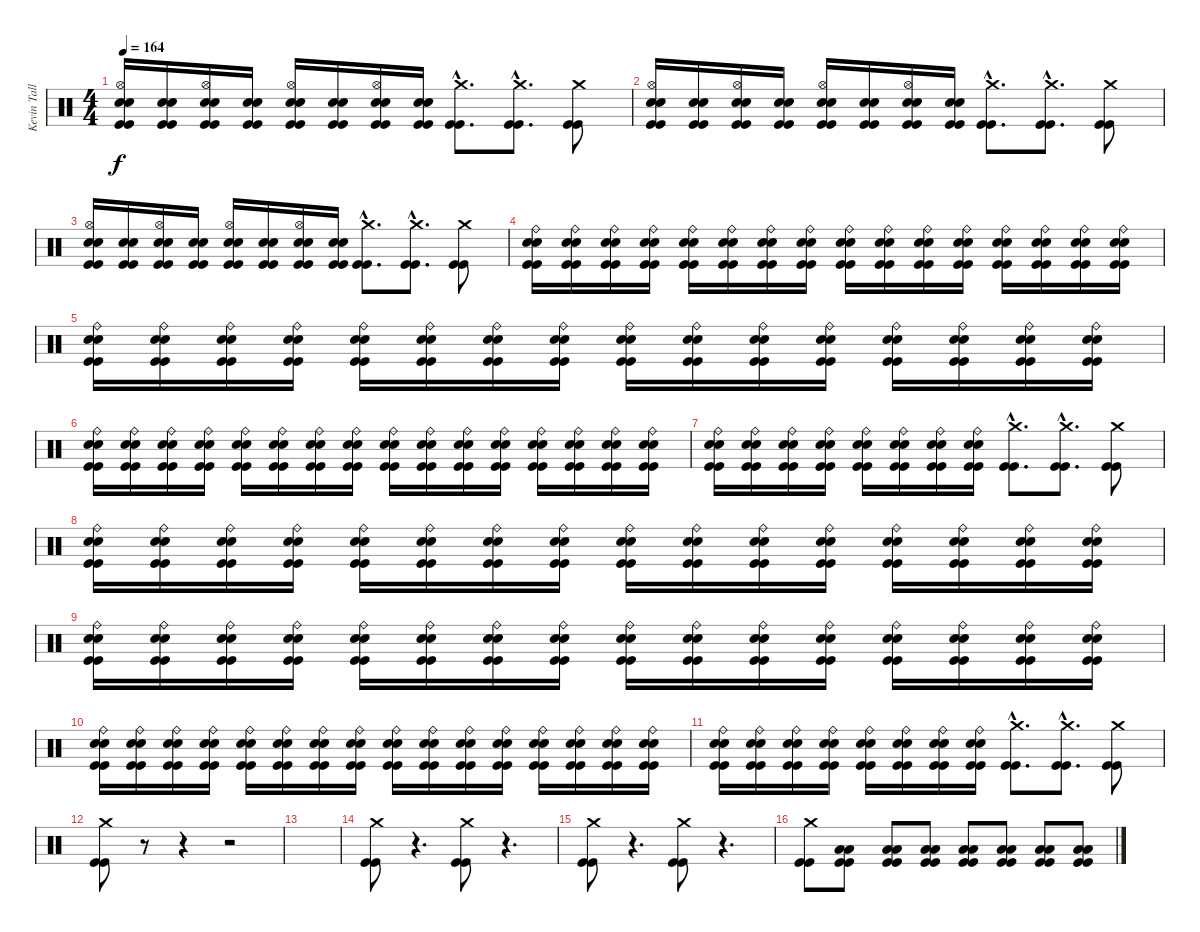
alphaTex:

\track ("Kevin Talley" "Kevin Tall") {instrument percussion}
\staff {score}
\articulation defaults
\ts (4 4)
\tempo 164
\clef neutral
\ks c
("Snare (hit) 2" "Snare (hit) 2" "Hi-Hat (open)" "Kick (hit)" "Kick (hit)").16{dy f} ("Snare (hit) 2" "Snare (hit) 2" "Kick (hit)" "Kick (hit)").16 ("Snare (hit) 2" "Snare (hit) 2" "Hi-Hat (open)" "Kick (hit)" "Kick (hit)").16 ("Snare (hit) 2" "Snare (hit) 2" "Kick (hit)" "Kick (hit)").16 ("Snare (hit) 2" "Snare (hit) 2" "Hi-Hat (open)" "Kick (hit)" "Kick (hit)").16 ("Snare (hit) 2" "Snare (hit) 2" "Kick (hit)" "Kick (hit)").16 ("Snare (hit) 2" "Snare (hit) 2" "Hi-Hat (open)" "Kick (hit)" "Kick (hit)").16 ("Snare (hit) 2" "Snare (hit) 2" "Kick (hit)" "Kick (hit)").16 ("Crash medium (hit)"{hac} "Kick (hit)"{hac} "Kick (hit)"{hac}).8{d} ("Crash medium (hit)"{hac} "Kick (hit)"{hac} "Kick (hit)"{hac}).8{d} ("Crash medium (hit)" "Kick (hit)" "Kick (hit)").8 |
("Snare (hit) 2" "Snare (hit) 2" "Hi-Hat (open)" "Kick (hit)" "Kick (hit)").16 ("Snare (hit) 2" "Snare (hit) 2" "Kick (hit)" "Kick (hit)").16 ("Snare (hit) 2" "Snare (hit) 2" "Hi-Hat (open)" "Kick (hit)" "Kick (hit)").16 ("Snare (hit) 2" "Snare (hit) 2" "Kick (hit)" "Kick (hit)").16 ("Snare (hit) 2" "Snare (hit) 2" "Hi-Hat (open)" "Kick (hit)" "Kick (hit)").16 ("Snare (hit) 2" "Snare (hit) 2" "Kick (hit)" "Kick (hit)").16 ("Snare (hit) 2" "Snare (hit) 2" "Hi-Hat (open)" "Kick (hit)" "Kick (hit)").16 ("Snare (hit) 2" "Snare (hit) 2" "Kick (hit)" "Kick (hit)").16 ("Crash medium (hit)"{hac} "Kick (hit)"{hac} "Kick (hit)"{hac}).8{d} ("Crash medium (hit)"{hac} "Kick (hit)"{hac} "Kick (hit)"{hac}).8{d} ("Crash medium (hit)" "Kick (hit)" "Kick (hit)").8 |
("Snare (hit) 2" "Snare (hit) 2" "Hi-Hat (open)" "Kick (hit)" "Kick (hit)").16 ("Snare (hit) 2" "Snare (hit) 2" "Kick (hit)" "Kick (hit)").16 ("Snare (hit) 2" "Snare (hit) 2" "Hi-Hat (open)" "Kick (hit)" "Kick (hit)").16 ("Snare (hit) 2" "Snare (hit) 2" "Kick (hit)" "Kick (hit)").16 ("Snare (hit) 2" "Snare (hit) 2" "Hi-Hat (open)" "Kick (hit)" "Kick (hit)").16 ("Snare (hit) 2" "Snare (hit) 2" "Kick (hit)" "Kick (hit)").16 ("Snare (hit) 2" "Snare (hit) 2" "Hi-Hat (open)" "Kick (hit)" "Kick (hit)").16 ("Snare (hit) 2" "Snare (hit) 2" "Kick (hit)" "Kick (hit)").16 ("Crash medium (hit)"{hac} "Kick (hit)"{hac} "Kick (hit)"{hac}).8{d} ("Crash medium (hit)"{hac} "Kick (hit)"{hac} "Kick (hit)"{hac}).8{d} ("Crash medium (hit)" "Kick (hit)" "Kick (hit)").8 |
("Snare (hit) 2" "Snare (hit) 2" "Ride (bell)" "Kick (hit)" "Kick (hit)").16 ("Snare (hit) 2" "Snare (hit) 2" "Ride (bell)" "Kick (hit)" "Kick (hit)").16 ("Snare (hit) 2" "Snare (hit) 2" "Ride (bell)" "Kick (hit)" "Kick (hit)").16 ("Snare (hit) 2" "Snare (hit) 2" "Ride (bell)" "Kick (hit)" "Kick (hit)").16 ("Snare (hit) 2" "Snare (hit) 2" "Ride (bell)" "Kick (hit)" "Kick (hit)").16 ("Snare (hit) 2" "Snare (hit) 2" "Ride (bell)" "Kick (hit)" "Kick (hit)").16 ("Snare (hit) 2" "Snare (hit) 2" "Ride (bell)" "Kick (hit)" "Kick (hit)").16 ("Snare (hit) 2" "Snare (hit) 2" "Ride (bell)" "Kick (hit)" "Kick (hit)").16 ("Snare (hit) 2" "Snare (hit) 2" "Ride (bell)" "Kick (hit)" "Kick (hit)").16 ("Snare (hit) 2" "Snare (hit) 2" "Ride (bell)" "Kick (hit)" "Kick (hit)").16 ("Snare (hit) 2" "Snare (hit) 2" "Ride (bell)" "Kick (hit)" "Kick (hit)").16 ("Snare (hit) 2" "Snare (hit) 2" "Ride (bell)" "Kick (hit)" "Kick (hit)").16 ("Snare (hit) 2" "Snare (hit) 2" "Ride (bell)" "Kick (hit)" "Kick (hit)").16 ("Snare (hit) 2" "Snare (hit) 2" "Ride (bell)" "Kick (hit)" "Kick (hit)").16 ("Snare (hit) 2" "Snare (hit) 2" "Ride (bell)" "Kick (hit)" "Kick (hit)").16 ("Snare (hit) 2" "Snare (hit) 2" "Ride (bell)" "Kick (hit)" "Kick (hit)").16 |
("Snare (hit) 2" "Snare (hit) 2" "Ride (bell)" "Kick (hit)" "Kick (hit)").16 ("Snare (hit) 2" "Snare (hit) 2" "Ride (bell)" "Kick (hit)" "Kick (hit)").16 ("Snare (hit) 2" "Snare (hit) 2" "Ride (bell)" "Kick (hit)" "Kick (hit)").16 ("Snare (hit) 2" "Snare (hit) 2" "Ride (bell)" "Kick (hit)" "Kick (hit)").16 ("Snare (hit) 2" "Snare (hit) 2" "Ride (bell)" "Kick (hit)" "Kick (hit)").16 ("Snare (hit) 2" "Snare (hit) 2" "Ride (bell)" "Kick (hit)" "Kick (hit)").16 ("Snare (hit) 2" "Snare (hit) 2" "Ride (bell)" "Kick (hit)" "Kick (hit)").16 ("Snare (hit) 2" "Snare (hit) 2" "Ride (bell)" "Kick (hit)" "Kick (hit)").16 ("Snare (hit) 2" "Snare (hit) 2" "Ride (bell)" "Kick (hit)" "Kick (hit)").16 ("Snare (hit) 2" "Snare (hit) 2" "Ride (bell)" "Kick (hit)" "Kick (hit)").16 ("Snare (hit) 2" "Snare (hit) 2" "Ride (bell)" "Kick (hit)" "Kick (hit)").16 ("Snare (hit) 2" "Snare (hit) 2" "Ride (bell)" "Kick (hit)" "Kick (hit)").16 ("Snare (hit) 2" "Snare (hit) 2" "Ride (bell)" "Kick (hit)" "Kick (hit)").16 ("Snare (hit) 2" "Snare (hit) 2" "Ride (bell)" "Kick (hit)" "Kick (hit)").16 ("Snare (hit) 2" "Snare (hit) 2" "Ride (bell)" "Kick (hit)" "Kick (hit)").16 ("Snare (hit) 2" "Snare (hit) 2" "Ride (bell)" "Kick (hit)" "Kick (hit)").16 |
("Snare (hit) 2" "Snare (hit) 2" "Ride (bell)" "Kick (hit)" "Kick (hit)").16 ("Snare (hit) 2" "Snare (hit) 2" "Ride (bell)" "Kick (hit)" "Kick (hit)").16 ("Snare (hit) 2" "Snare (hit) 2" "Ride (bell)" "Kick (hit)" "Kick (hit)").16 ("Snare (hit) 2" "Snare (hit) 2" "Ride (bell)" "Kick (hit)" "Kick (hit)").16 ("Snare (hit) 2" "Snare (hit) 2" "Ride (bell)" "Kick (hit)" "Kick (hit)").16 ("Snare (hit) 2" "Snare (hit) 2" "Ride (bell)" "Kick (hit)" "Kick (hit)").16 ("Snare (hit) 2" "Snare (hit) 2" "Ride (bell)" "Kick (hit)" "Kick (hit)").16 ("Snare (hit) 2" "Snare (hit) 2" "Ride (bell)" "Kick (hit)" "Kick (hit)").16 ("Snare (hit) 2" "Snare (hit) 2" "Ride (bell)" "Kick (hit)" "Kick (hit)").16 ("Snare (hit) 2" "Snare (hit) 2" "Ride (bell)" "Kick (hit)" "Kick (hit)").16 ("Snare (hit) 2" "Snare (hit) 2" "Ride (bell)" "Kick (hit)" "Kick (hit)").16 ("Snare (hit) 2" "Snare (hit) 2" "Ride (bell)" "Kick (hit)" "Kick (hit)").16 ("Snare (hit) 2" "Snare (hit) 2" "Ride (bell)" "Kick (hit)" "Kick (hit)").16 ("Snare (hit) 2" "Snare (hit) 2" "Ride (bell)" "Kick (hit)" "Kick (hit)").16 ("Snare (hit) 2" "Snare (hit) 2" "Ride (bell)" "Kick (hit)" "Kick (hit)").16 ("Snare (hit) 2" "Snare (hit) 2" "Ride (bell)" "Kick (hit)" "Kick (hit)").16 |
("Snare (hit) 2" "Snare (hit) 2" "Ride (bell)" "Kick (hit)" "Kick (hit)").16 ("Snare (hit) 2" "Snare (hit) 2" "Ride (bell)" "Kick (hit)" "Kick (hit)").16 ("Snare (hit) 2" "Snare (hit) 2" "Ride (bell)" "Kick (hit)" "Kick (hit)").16 ("Snare (hit) 2" "Snare (hit) 2" "Ride (bell)" "Kick (hit)" "Kick (hit)").16 ("Snare (hit) 2" "Snare (hit) 2" "Ride (bell)" "Kick (hit)" "Kick (hit)").16 ("Snare (hit) 2" "Snare (hit) 2" "Ride (bell)" "Kick (hit)" "Kick (hit)").16 ("Snare (hit) 2" "Snare (hit) 2" "Ride (bell)" "Kick (hit)" "Kick (hit)").16 ("Snare (hit) 2" "Snare (hit) 2" "Ride (bell)" "Kick (hit)" "Kick (hit)").16 ("Crash medium (hit)"{hac} "Kick (hit)"{hac} "Kick (hit)"{hac}).8{d} ("Crash medium (hit)"{hac} "Kick (hit)"{hac} "Kick (hit)"{hac}).8{d} ("Crash medium (hit)" "Kick (hit)" "Kick (hit)").8 |
("Snare (hit) 2" "Snare (hit) 2" "Ride (bell)" "Kick (hit)" "Kick (hit)").16 ("Snare (hit) 2" "Snare (hit) 2" "Ride (bell)" "Kick (hit)" "Kick (hit)").16 ("Snare (hit) 2" "Snare (hit) 2" "Ride (bell)" "Kick (hit)" "Kick (hit)").16 ("Snare (hit) 2" "Snare (hit) 2" "Ride (bell)" "Kick (hit)" "Kick (hit)").16 ("Snare (hit) 2" "Snare (hit) 2" "Ride (bell)" "Kick (hit)" "Kick (hit)").16 ("Snare (hit) 2" "Snare (hit) 2" "Ride (bell)" "Kick (hit)" "Kick (hit)").16 ("Snare (hit) 2" "Snare (hit) 2" "Ride (bell)" "Kick (hit)" "Kick (hit)").16 ("Snare (hit) 2" "Snare (hit) 2" "Ride (bell)" "Kick (hit)" "Kick (hit)").16 ("Snare (hit) 2" "Snare (hit) 2" "Ride (bell)" "Kick (hit)" "Kick (hit)").16 ("Snare (hit) 2" "Snare (hit) 2" "Ride (bell)" "Kick (hit)" "Kick (hit)").16 ("Snare (hit) 2" "Snare (hit) 2" "Ride (bell)" "Kick (hit)" "Kick (hit)").16 ("Snare (hit) 2" "Snare (hit) 2" "Ride (bell)" "Kick (hit)" "Kick (hit)").16 ("Snare (hit) 2" "Snare (hit) 2" "Ride (bell)" "Kick (hit)" "Kick (hit)").16 ("Snare (hit) 2" "Snare (hit) 2" "Ride (bell)" "Kick (hit)" "Kick (hit)").16 ("Snare (hit) 2" "Snare (hit) 2" "Ride (bell)" "Kick (hit)" "Kick (hit)").16 ("Snare (hit) 2" "Snare (hit) 2" "Ride (bell)" "Kick (hit)" "Kick (hit)").16 |
("Snare (hit) 2" "Snare (hit) 2" "Ride (bell)" "Kick (hit)" "Kick (hit)").16 ("Snare (hit) 2" "Snare (hit) 2" "Ride (bell)" "Kick (hit)" "Kick (hit)").16 ("Snare (hit) 2" "Snare (hit) 2" "Ride (bell)" "Kick (hit)" "Kick (hit)").16 ("Snare (hit) 2" "Snare (hit) 2" "Ride (bell)" "Kick (hit)" "Kick (hit)").16 ("Snare (hit) 2" "Snare (hit) 2" "Ride (bell)" "Kick (hit)" "Kick (hit)").16 ("Snare (hit) 2" "Snare (hit) 2" "Ride (bell)" "Kick (hit)" "Kick (hit)").16 ("Snare (hit) 2" "Snare (hit) 2" "Ride (bell)" "Kick (hit)" "Kick (hit)").16 ("Snare (hit) 2" "Snare (hit) 2" "Ride (bell)" "Kick (hit)" "Kick (hit)").16 ("Snare (hit) 2" "Snare (hit) 2" "Ride (bell)" "Kick (hit)" "Kick (hit)").16 ("Snare (hit) 2" "Snare (hit) 2" "Ride (bell)" "Kick (hit)" "Kick (hit)").16 ("Snare (hit) 2" "Snare (hit) 2" "Ride (bell)" "Kick (hit)" "Kick (hit)").16 ("Snare (hit) 2" "Snare (hit) 2" "Ride (bell)" "Kick (hit)" "Kick (hit)").16 ("Snare (hit) 2" "Snare (hit) 2" "Ride (bell)" "Kick (hit)" "Kick (hit)").16 ("Snare (hit) 2" "Snare (hit) 2" "Ride (bell)" "Kick (hit)" "Kick (hit)").16 ("Snare (hit) 2" "Snare (hit) 2" "Ride (bell)" "Kick (hit)" "Kick (hit)").16 ("Snare (hit) 2" "Snare (hit) 2" "Ride (bell)" "Kick (hit)" "Kick (hit)").16 |
("Snare (hit) 2" "Snare (hit) 2" "Ride (bell)" "Kick (hit)" "Kick (hit)").16 ("Snare (hit) 2" "Snare (hit) 2" "Ride (bell)" "Kick (hit)" "Kick (hit)").16 ("Snare (hit) 2" "Snare (hit) 2" "Ride (bell)" "Kick (hit)" "Kick (hit)").16 ("Snare (hit) 2" "Snare (hit) 2" "Ride (bell)" "Kick (hit)" "Kick (hit)").16 ("Snare (hit) 2" "Snare (hit) 2" "Ride (bell)" "Kick (hit)" "Kick (hit)").16 ("Snare (hit) 2" "Snare (hit) 2" "Ride (bell)" "Kick (hit)" "Kick (hit)").16 ("Snare (hit) 2" "Snare (hit) 2" "Ride (bell)" "Kick (hit)" "Kick (hit)").16 ("Snare (hit) 2" "Snare (hit) 2" "Ride (bell)" "Kick (hit)" "Kick (hit)").16 ("Snare (hit) 2" "Snare (hit) 2" "Ride (bell)" "Kick (hit)" "Kick (hit)").16 ("Snare (hit) 2" "Snare (hit) 2" "Ride (bell)" "Kick (hit)" "Kick (hit)").16 ("Snare (hit) 2" "Snare (hit) 2" "Ride (bell)" "Kick (hit)" "Kick (hit)").16 ("Snare (hit) 2" "Snare (hit) 2" "Ride (bell)" "Kick (hit)" "Kick (hit)").16 ("Snare (hit) 2" "Snare (hit) 2" "Ride (bell)" "Kick (hit)" "Kick (hit)").16 ("Snare (hit) 2" "Snare (hit) 2" "Ride (bell)" "Kick (hit)" "Kick (hit)").16 ("Snare (hit) 2" "Snare (hit) 2" "Ride (bell)" "Kick (hit)" "Kick (hit)").16 ("Snare (hit) 2" "Snare (hit) 2" "Ride (bell)" "Kick (hit)" "Kick (hit)").16 |
("Snare (hit) 2" "Snare (hit) 2" "Ride (bell)" "Kick (hit)" "Kick (hit)").16 ("Snare (hit) 2" "Snare (hit) 2" "Ride (bell)" "Kick (hit)" "Kick (hit)").16 ("Snare (hit) 2" "Snare (hit) 2" "Ride (bell)" "Kick (hit)" "Kick (hit)").16 ("Snare (hit) 2" "Snare (hit) 2" "Ride (bell)" "Kick (hit)" "Kick (hit)").16 ("Snare (hit) 2" "Snare (hit) 2" "Ride (bell)" "Kick (hit)" "Kick (hit)").16 ("Snare (hit) 2" "Snare (hit) 2" "Ride (bell)" "Kick (hit)" "Kick (hit)").16 ("Snare (hit) 2" "Snare (hit) 2" "Ride (bell)" "Kick (hit)" "Kick (hit)").16 ("Snare (hit) 2" "Snare (hit) 2" "Ride (bell)" "Kick (hit)" "Kick (hit)").16 ("Crash medium (hit)"{hac} "Kick (hit)"{hac} "Kick (hit)"{hac}).8{d} ("Crash medium (hit)"{hac} "Kick (hit)"{hac} "Kick (hit)"{hac}).8{d} ("Crash medium (hit)" "Kick (hit)" "Kick (hit)").8 |
("Crash medium (hit)" "Kick (hit)" "Kick (hit)").8 r.8 r.4 r.2 |
|
("Crash medium (hit)" "Kick (hit)" "Kick (hit)").8 r.4{d} ("Crash medium (hit)" "Kick (hit)" "Kick (hit)").8 r.4{d} |
("Crash medium (hit)" "Kick (hit)" "Kick (hit)").8 r.4{d} ("Crash medium (hit)" "Kick (hit)" "Kick (hit)").8 r.4{d} |
("Crash medium (hit)" "Kick (hit)" "Kick (hit)").8 ("Low Floor Tom (hit)" "Low Floor Tom (hit)" "Kick (hit)" "Kick (hit)").8 ("Low Floor Tom (hit)" "Low Floor Tom (hit)" "Kick (hit)" "Kick (hit)").8 ("Low Floor Tom (hit)" "Low Floor Tom (hit)" "Kick (hit)" "Kick (hit)").8 ("Low Floor Tom (hit)" "Low Floor Tom (hit)" "Kick (hit)" "Kick (hit)").8 ("Low Floor Tom (hit)" "Low Floor Tom (hit)" "Kick (hit)" "Kick (hit)").8 ("Low Floor Tom (hit)" "Low Floor Tom (hit)" "Kick (hit)" "Kick (hit)").8 ("Low Floor Tom (hit)" "Low Floor Tom (hit)" "Kick (hit)" "Kick (hit)").8
